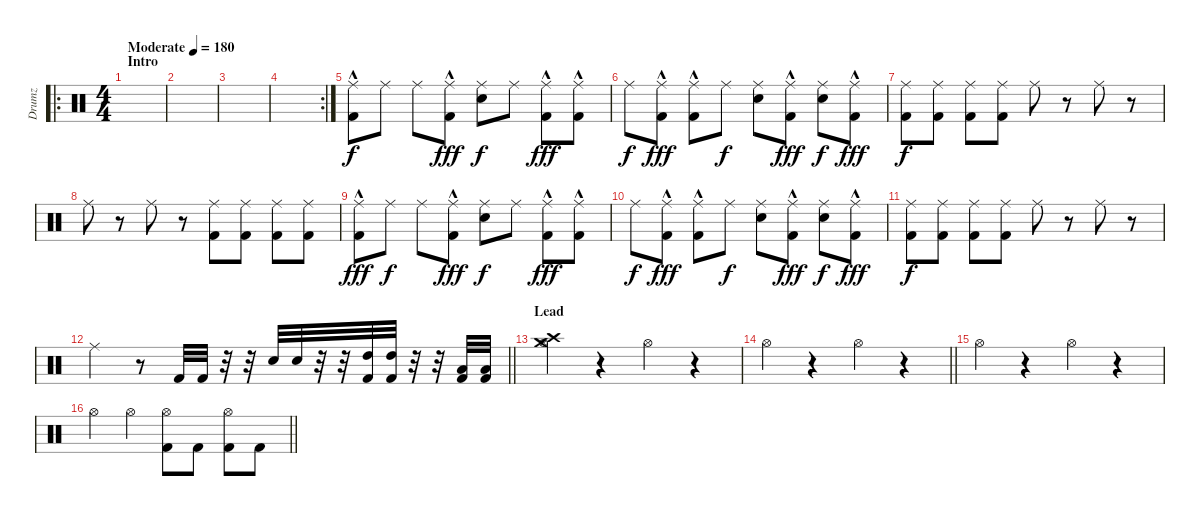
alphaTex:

\track ("Drumz" "Drumz") {instrument percussion}
\staff {score}
\articulation defaults
\ro
\ts (4 4)
\section ("" "Intro")
\tempo (180 "Moderate")
\clef neutral
\ks c
|
|
|
\rc 2
|
("Kick (hit) 2"{hac} "Ride (middle)").8 "Ride (middle)".8{dy f} "Ride (middle)".8 ("Kick (hit) 2"{hac} "Ride (middle)").8{dy fff} ("Electric Snare (hit)" "Ride (middle)").8{dy f} "Ride (middle)".8 ("Kick (hit) 2"{hac} "Ride (middle)").8{dy fff} ("Kick (hit) 2"{hac} "Ride (middle)").8 |
"Ride (middle)".8{dy f} ("Kick (hit) 2"{hac} "Ride (middle)").8{dy fff} ("Kick (hit) 2"{hac} "Ride (middle)").8 "Ride (middle)".8{dy f} ("Electric Snare (hit)" "Ride (middle)").8 ("Kick (hit) 2"{hac} "Ride (middle)").8{dy fff} ("Electric Snare (hit)" "Ride (middle)").8{dy f} ("Kick (hit) 2"{hac} "Ride (middle)").8{dy fff} |
("Kick (hit) 2" "Ride (middle)").8{dy f} ("Kick (hit) 2" "Ride (middle)").8 ("Kick (hit) 2" "Ride (middle)").8 ("Kick (hit) 2" "Ride (middle)").8 "Ride (middle)".8 r.8 "Ride (middle)".8 r.8 |
"Ride (middle)".8 r.8 "Ride (middle)".8 r.8 ("Kick (hit) 2" "Ride (middle)").8 ("Kick (hit) 2" "Ride (middle)").8 ("Kick (hit) 2" "Ride (middle)").8 ("Kick (hit) 2" "Ride (middle)").8 |
("Kick (hit) 2"{hac} "Ride (middle)").8{dy fff} "Ride (middle)".8{dy f} "Ride (middle)".8 ("Kick (hit) 2"{hac} "Ride (middle)").8{dy fff} ("Electric Snare (hit)" "Ride (middle)").8{dy f} "Ride (middle)".8 ("Kick (hit) 2"{hac} "Ride (middle)").8{dy fff} ("Kick (hit) 2"{hac} "Ride (middle)").8 |
"Ride (middle)".8{dy f} ("Kick (hit) 2"{hac} "Ride (middle)").8{dy fff} ("Kick (hit) 2"{hac} "Ride (middle)").8 "Ride (middle)".8{dy f} ("Electric Snare (hit)" "Ride (middle)").8 ("Kick (hit) 2"{hac} "Ride (middle)").8{dy fff} ("Electric Snare (hit)" "Ride (middle)").8{dy f} ("Kick (hit) 2"{hac} "Ride (middle)").8{dy fff} |
("Kick (hit) 2" "Ride (middle)").8{dy f} ("Kick (hit) 2" "Ride (middle)").8 ("Kick (hit) 2" "Ride (middle)").8 ("Kick (hit) 2" "Ride (middle)").8 "Ride (middle)".8 r.8 "Ride (middle)".8 r.8 |
\barLineRight lightlight "Ride (middle)".4
r.8 "Kick (hit) 2".32 "Kick (hit) 2".32 r.32 r.32 "Electric Snare (hit)".32 "Electric Snare (hit)".32 r.32 r.32 ("High Tom (hit)" "Kick (hit) 2").32 ("High Tom (hit)" "Kick (hit) 2").32 r.32 r.32 ("Low Tom (hit)" "Kick (hit) 2").32 ("Low Tom (hit)" "Kick (hit) 2").32 |
\section ("" "Lead")
("Crash high (hit)" "Crash medium (hit)" "Hi-Hat (open)").4 r.4 "Hi-Hat (open)".4 r.4 |
\barLineRight lightlight "Hi-Hat (open)".4
r.4 "Hi-Hat (open)".4 r.4 |
"Hi-Hat (open)".4 r.4 "Hi-Hat (open)".4 r.4 |
\barLineRight lightlight "Hi-Hat (open)".4 "Hi-Hat (open)".4
("Kick (hit) 2" "Hi-Hat (open)").8 "Kick (hit) 2".8 ("Kick (hit) 2" "Hi-Hat (open)").8 "Kick (hit) 2".8
